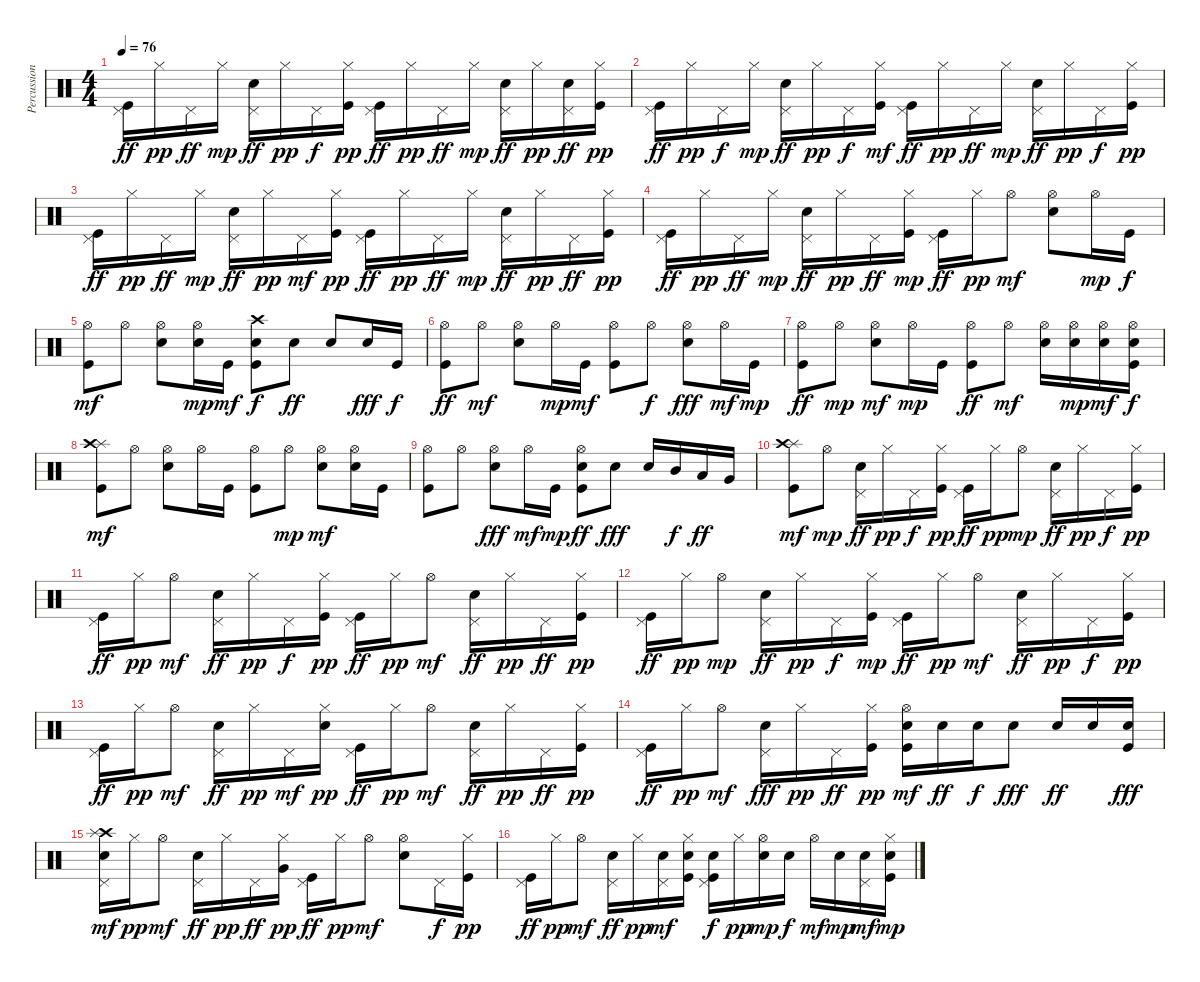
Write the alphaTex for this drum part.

\track ("Percussion" "Percussion") {instrument percussion}
\staff {score}
\articulation defaults
\ts (4 4)
\tempo 76
\clef neutral
\ks c
("Pedal Hi-Hat (hit)" "Kick (hit)").16{dy ff} "Hi-Hat (closed)".16{dy pp} "Pedal Hi-Hat (hit)".16{dy ff} "Hi-Hat (closed)".16{dy mp} ("Pedal Hi-Hat (hit)" "Snare (hit) 2").16{dy ff} "Hi-Hat (closed)".16{dy pp} "Pedal Hi-Hat (hit)".16{dy f} ("Hi-Hat (closed)" "Kick (hit)").16{dy pp} ("Pedal Hi-Hat (hit)" "Kick (hit)").16{dy ff} "Hi-Hat (closed)".16{dy pp} "Pedal Hi-Hat (hit)".16{dy ff} "Hi-Hat (closed)".16{dy mp} ("Pedal Hi-Hat (hit)" "Snare (hit) 2").16{dy ff} "Hi-Hat (closed)".16{dy pp} ("Pedal Hi-Hat (hit)" "Snare (hit) 2").16{dy ff} ("Hi-Hat (closed)" "Kick (hit)").16{dy pp} |
("Pedal Hi-Hat (hit)" "Kick (hit)").16{dy ff} "Hi-Hat (closed)".16{dy pp} "Pedal Hi-Hat (hit)".16{dy f} "Hi-Hat (closed)".16{dy mp} ("Pedal Hi-Hat (hit)" "Snare (hit) 2").16{dy ff} "Hi-Hat (closed)".16{dy pp} "Pedal Hi-Hat (hit)".16{dy f} ("Hi-Hat (closed)" "Kick (hit)").16{dy mf} ("Pedal Hi-Hat (hit)" "Kick (hit)").16{dy ff} "Hi-Hat (closed)".16{dy pp} "Pedal Hi-Hat (hit)".16{dy ff} "Hi-Hat (closed)".16{dy mp} ("Pedal Hi-Hat (hit)" "Snare (hit) 2").16{dy ff} "Hi-Hat (closed)".16{dy pp} "Pedal Hi-Hat (hit)".16{dy f} ("Hi-Hat (closed)" "Kick (hit)").16{dy pp} |
("Pedal Hi-Hat (hit)" "Kick (hit)").16{dy ff} "Hi-Hat (closed)".16{dy pp} "Pedal Hi-Hat (hit)".16{dy ff} "Hi-Hat (closed)".16{dy mp} ("Pedal Hi-Hat (hit)" "Snare (hit) 2").16{dy ff} "Hi-Hat (closed)".16{dy pp} "Pedal Hi-Hat (hit)".16{dy mf} ("Hi-Hat (closed)" "Kick (hit)").16{dy pp} ("Pedal Hi-Hat (hit)" "Kick (hit)").16{dy ff} "Hi-Hat (closed)".16{dy pp} "Pedal Hi-Hat (hit)".16{dy ff} "Hi-Hat (closed)".16{dy mp} ("Pedal Hi-Hat (hit)" "Snare (hit) 2").16{dy ff} "Hi-Hat (closed)".16{dy pp} "Pedal Hi-Hat (hit)".16{dy ff} ("Hi-Hat (closed)" "Kick (hit)").16{dy pp} |
("Pedal Hi-Hat (hit)" "Kick (hit)").16{dy ff} "Hi-Hat (closed)".16{dy pp} "Pedal Hi-Hat (hit)".16{dy ff} "Hi-Hat (closed)".16{dy mp} ("Pedal Hi-Hat (hit)" "Snare (hit) 2").16{dy ff} "Hi-Hat (closed)".16{dy pp} "Pedal Hi-Hat (hit)".16{dy ff} ("Hi-Hat (closed)" "Kick (hit)").16{dy mp} ("Pedal Hi-Hat (hit)" "Kick (hit)").16{dy ff} "Hi-Hat (closed)".16{dy pp} "Hi-Hat (open)".8{dy mf} ("Hi-Hat (open)" "Snare (hit) 2").8 "Hi-Hat (open)".16{dy mp} "Kick (hit)".16{dy f} |
("Hi-Hat (open)" "Kick (hit)").8{dy mf} "Hi-Hat (open)".8 ("Hi-Hat (open)" "Snare (hit) 2").8 ("Hi-Hat (open)" "Snare (hit) 2").16{dy mp} "Kick (hit)".16{dy mf} ("Crash high (hit)" "Snare (hit) 2" "Kick (hit)").8{dy f} "Snare (hit) 2".8{dy ff} "Snare (hit) 2".8 "Snare (hit) 2".16{dy fff} "Kick (hit)".16{dy f} |
("Hi-Hat (open)" "Kick (hit)").8{dy ff} "Hi-Hat (open)".8{dy mf} ("Hi-Hat (open)" "Snare (hit) 2").8 "Hi-Hat (open)".16{dy mp} "Kick (hit)".16{dy mf} ("Hi-Hat (open)" "Kick (hit)").8 "Hi-Hat (open)".8{dy f} ("Hi-Hat (open)" "Snare (hit) 2").8{dy fff} "Hi-Hat (open)".16{dy mf} "Kick (hit)".16{dy mp} |
("Hi-Hat (open)" "Kick (hit)").8{dy ff} "Hi-Hat (open)".8{dy mp} ("Hi-Hat (open)" "Snare (hit) 2").8{dy mf} "Hi-Hat (open)".16{dy mp} "Kick (hit)".16 ("Hi-Hat (open)" "Kick (hit)").8{dy ff} "Hi-Hat (open)".8{dy mf} ("Hi-Hat (open)" "Snare (hit) 2").16 ("Hi-Hat (open)" "Snare (hit) 2").16{dy mp} ("Hi-Hat (open)" "Snare (hit) 2").16{dy mf} ("Hi-Hat (open)" "Snare (hit) 2" "Kick (hit)").16{dy f} |
("Splash (hit)" "Crash high (hit)" "Kick (hit)").8{dy mf} "Hi-Hat (open)".8 ("Hi-Hat (open)" "Snare (hit) 2").8 "Hi-Hat (open)".16 "Kick (hit)".16 ("Hi-Hat (open)" "Kick (hit)").8 "Hi-Hat (open)".8{dy mp} ("Hi-Hat (open)" "Snare (hit) 2").8{dy mf} ("Hi-Hat (open)" "Snare (hit) 2").16 "Kick (hit)".16 |
("Hi-Hat (open)" "Kick (hit)").8 "Hi-Hat (open)".8 ("Hi-Hat (open)" "Snare (hit) 2").8{dy fff} "Hi-Hat (open)".16{dy mf} "Kick (hit)".16{dy mp} ("Hi-Hat (open)" "Snare (hit) 2" "Kick (hit)").8{dy ff} "Snare (hit) 2".8{dy fff} "Snare (hit) 2".16 "Mid Tom (hit)".16{dy f} "Low Tom (hit)".16{dy ff} "Very Low Tom (hit)".16 |
("Splash (hit)" "Crash high (hit)" "Kick (hit)").8{dy mf} "Hi-Hat (open)".8{dy mp} ("Pedal Hi-Hat (hit)" "Snare (hit) 2").16{dy ff} "Hi-Hat (closed)".16{dy pp} "Pedal Hi-Hat (hit)".16{dy f} ("Hi-Hat (closed)" "Kick (hit)").16{dy pp} ("Pedal Hi-Hat (hit)" "Kick (hit)").16{dy ff} "Hi-Hat (closed)".16{dy pp} "Hi-Hat (open)".8{dy mp} ("Pedal Hi-Hat (hit)" "Snare (hit) 2").16{dy ff} "Hi-Hat (closed)".16{dy pp} "Pedal Hi-Hat (hit)".16{dy f} ("Hi-Hat (closed)" "Kick (hit)").16{dy pp} |
("Pedal Hi-Hat (hit)" "Kick (hit)").16{dy ff} "Hi-Hat (closed)".16{dy pp} "Hi-Hat (open)".8{dy mf} ("Pedal Hi-Hat (hit)" "Snare (hit) 2").16{dy ff} "Hi-Hat (closed)".16{dy pp} "Pedal Hi-Hat (hit)".16{dy f} ("Hi-Hat (closed)" "Kick (hit)").16{dy pp} ("Pedal Hi-Hat (hit)" "Kick (hit)").16{dy ff} "Hi-Hat (closed)".16{dy pp} "Hi-Hat (open)".8{dy mf} ("Pedal Hi-Hat (hit)" "Snare (hit) 2").16{dy ff} "Hi-Hat (closed)".16{dy pp} "Pedal Hi-Hat (hit)".16{dy ff} ("Hi-Hat (closed)" "Kick (hit)").16{dy pp} |
("Pedal Hi-Hat (hit)" "Kick (hit)").16{dy ff} "Hi-Hat (closed)".16{dy pp} "Hi-Hat (open)".8{dy mp} ("Pedal Hi-Hat (hit)" "Snare (hit) 2").16{dy ff} "Hi-Hat (closed)".16{dy pp} "Pedal Hi-Hat (hit)".16{dy f} ("Hi-Hat (closed)" "Kick (hit)").16{dy mp} ("Pedal Hi-Hat (hit)" "Kick (hit)").16{dy ff} "Hi-Hat (closed)".16{dy pp} "Hi-Hat (open)".8{dy mf} ("Pedal Hi-Hat (hit)" "Snare (hit) 2").16{dy ff} "Hi-Hat (closed)".16{dy pp} "Pedal Hi-Hat (hit)".16{dy f} ("Hi-Hat (closed)" "Kick (hit)").16{dy pp} |
("Pedal Hi-Hat (hit)" "Kick (hit)").16{dy ff} "Hi-Hat (closed)".16{dy pp} "Hi-Hat (open)".8{dy mf} ("Pedal Hi-Hat (hit)" "Snare (hit) 2").16{dy ff} "Hi-Hat (closed)".16{dy pp} "Pedal Hi-Hat (hit)".16{dy mf} ("Hi-Hat (closed)" "Snare (hit) 2").16{dy pp} ("Pedal Hi-Hat (hit)" "Kick (hit)").16{dy ff} "Hi-Hat (closed)".16{dy pp} "Hi-Hat (open)".8{dy mf} ("Pedal Hi-Hat (hit)" "Snare (hit) 2").16{dy ff} "Hi-Hat (closed)".16{dy pp} "Pedal Hi-Hat (hit)".16{dy ff} ("Hi-Hat (closed)" "Kick (hit)").16{dy pp} |
("Pedal Hi-Hat (hit)" "Kick (hit)").16{dy ff} "Hi-Hat (closed)".16{dy pp} "Hi-Hat (open)".8{dy mf} ("Pedal Hi-Hat (hit)" "Snare (hit) 2").16{dy fff} "Hi-Hat (closed)".16{dy pp} "Pedal Hi-Hat (hit)".16{dy ff} ("Hi-Hat (closed)" "Kick (hit)").16{dy pp} ("Hi-Hat (open)" "Snare (hit) 2" "Kick (hit)").16{dy mf} "Snare (hit) 2".16{dy ff} "Snare (hit) 2".16{dy f} "Snare (hit) 2".8{dy fff} "Snare (hit) 2".16{dy ff} "Snare (hit) 2".16 ("Kick (hit)" "Snare (hit) 2").16{dy fff} |
("Pedal Hi-Hat (hit)" "Crash high (hit)" "Splash (hit)" "Snare (hit) 2").16{dy mf} "Hi-Hat (closed)".16{dy pp} "Hi-Hat (open)".8{dy mf} ("Pedal Hi-Hat (hit)" "Snare (hit) 2").16{dy ff} "Hi-Hat (closed)".16{dy pp} "Pedal Hi-Hat (hit)".16{dy ff} ("Very Low Tom (hit)" "Hi-Hat (closed)").16{dy pp} ("Pedal Hi-Hat (hit)" "Kick (hit)").16{dy ff} "Hi-Hat (closed)".16{dy pp} "Hi-Hat (open)".8{dy mf} ("Hi-Hat (open)" "Snare (hit) 2").8 "Pedal Hi-Hat (hit)".16{dy f} ("Hi-Hat (closed)" "Kick (hit)").16{dy pp} |
("Pedal Hi-Hat (hit)" "Kick (hit)").16{dy ff} "Hi-Hat (closed)".16{dy pp} "Hi-Hat (open)".8{dy mf} ("Pedal Hi-Hat (hit)" "Snare (hit) 2").16{dy ff} "Hi-Hat (closed)".16{dy pp} ("Pedal Hi-Hat (hit)" "Snare (hit) 2").16{dy mf} ("Hi-Hat (closed)" "Snare (hit) 2" "Kick (hit)").16 ("Pedal Hi-Hat (hit)" "Snare (hit) 2" "Kick (hit)").16{dy f} "Hi-Hat (closed)".16{dy pp} ("Hi-Hat (open)" "Snare (hit) 2").16{dy mp} "Snare (hit) 2".16{dy f} "Hi-Hat (open)".16{dy mf} "Snare (hit) 2".16{dy mp} ("Pedal Hi-Hat (hit)" "Snare (hit) 2").16{dy mf} ("Hi-Hat (closed)" "Snare (hit) 2" "Kick (hit)").16{dy mp}
